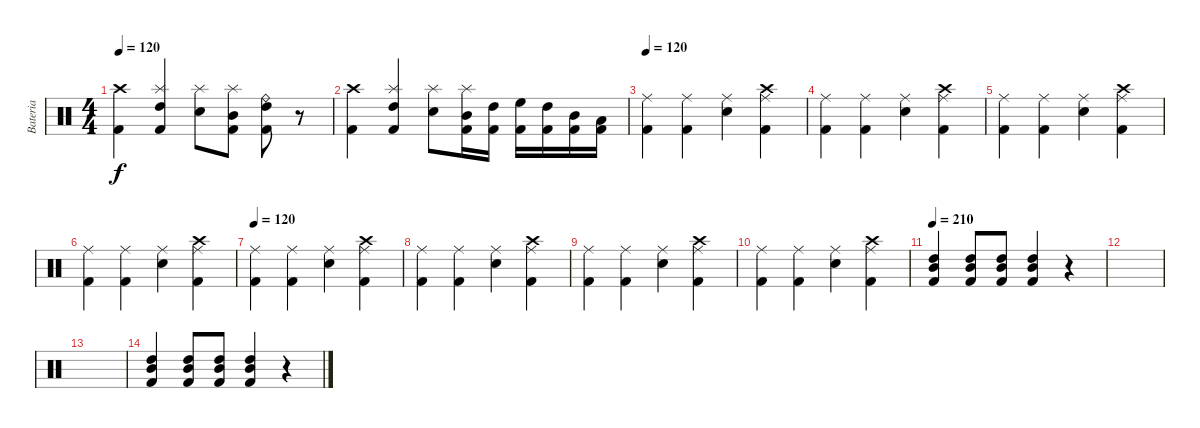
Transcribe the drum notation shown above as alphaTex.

\track ("Bateria" "Bateria") {instrument percussion}
\staff {score}
\articulation defaults
\ts (4 4)
\tempo 120
\clef neutral
\ks c
("Crash high (hit)" "Kick (hit) 2").4{dy f} ("Splash (hit)" "Kick (hit) 2" "High Tom (hit)").4 ("Splash (hit)" "Electric Snare (hit)").8 ("Splash (hit)" "Mid Tom (hit)" "Kick (hit) 2").8 ("Ride (bell)" "Kick (hit) 2" "High Tom (hit)").8 r.8 |
("Crash high (hit)" "Kick (hit) 2").4 ("Splash (hit)" "Kick (hit) 2" "High Tom (hit)").4 ("Splash (hit)" "Electric Snare (hit)").8 ("Splash (hit)" "Mid Tom (hit)" "Kick (hit) 2").16 ("Kick (hit) 2" "High Tom (hit)").16 ("Kick (hit) 2" "High Floor Tom (hit)").16 ("Kick (hit) 2" "High Tom (hit)").16 ("Kick (hit) 2" "Mid Tom (hit)").16 ("Kick (hit) 2" "Low Tom (hit)").16 |
\tempo 120
("Ride (middle)" "Kick (hit) 2").4 ("Ride (middle)" "Kick (hit) 2").4 ("Ride (middle)" "Electric Snare (hit)").4 ("Crash high (hit)" "Ride (middle)" "Kick (hit) 2").4 |
("Ride (middle)" "Kick (hit) 2").4 ("Ride (middle)" "Kick (hit) 2").4 ("Ride (middle)" "Electric Snare (hit)").4 ("Crash high (hit)" "Ride (middle)" "Kick (hit) 2").4 |
("Ride (middle)" "Kick (hit) 2").4 ("Ride (middle)" "Kick (hit) 2").4 ("Ride (middle)" "Electric Snare (hit)").4 ("Crash high (hit)" "Ride (middle)" "Kick (hit) 2").4 |
("Ride (middle)" "Kick (hit) 2").4 ("Ride (middle)" "Kick (hit) 2").4 ("Ride (middle)" "Electric Snare (hit)").4 ("Crash high (hit)" "Ride (middle)" "Kick (hit) 2").4 |
\tempo 120
("Ride (middle)" "Kick (hit) 2").4 ("Ride (middle)" "Kick (hit) 2").4 ("Ride (middle)" "Electric Snare (hit)").4 ("Crash high (hit)" "Ride (middle)" "Kick (hit) 2").4 |
("Ride (middle)" "Kick (hit) 2").4 ("Ride (middle)" "Kick (hit) 2").4 ("Ride (middle)" "Electric Snare (hit)").4 ("Ride (middle)" "Crash high (hit)" "Kick (hit) 2").4 |
("Ride (middle)" "Kick (hit) 2").4 ("Ride (middle)" "Kick (hit) 2").4 ("Ride (middle)" "Electric Snare (hit)").4 ("Crash high (hit)" "Ride (middle)" "Kick (hit) 2").4 |
("Ride (middle)" "Kick (hit) 2").4 ("Ride (middle)" "Kick (hit) 2").4 ("Ride (middle)" "Electric Snare (hit)").4 ("Crash high (hit)" "Ride (middle)" "Kick (hit) 2").4 |
\tempo 210
("High Tom (hit)" "Mid Tom (hit)" "Kick (hit) 2").4 ("High Tom (hit)" "Mid Tom (hit)" "Kick (hit) 2").8 ("High Tom (hit)" "Mid Tom (hit)" "Kick (hit) 2").8 ("High Tom (hit)" "Mid Tom (hit)" "Kick (hit) 2").4 r.4 |
|
|
("High Tom (hit)" "Mid Tom (hit)" "Kick (hit) 2").4 ("High Tom (hit)" "Mid Tom (hit)" "Kick (hit) 2").8 ("High Tom (hit)" "Mid Tom (hit)" "Kick (hit) 2").8 ("High Tom (hit)" "Mid Tom (hit)" "Kick (hit) 2").4 r.4
